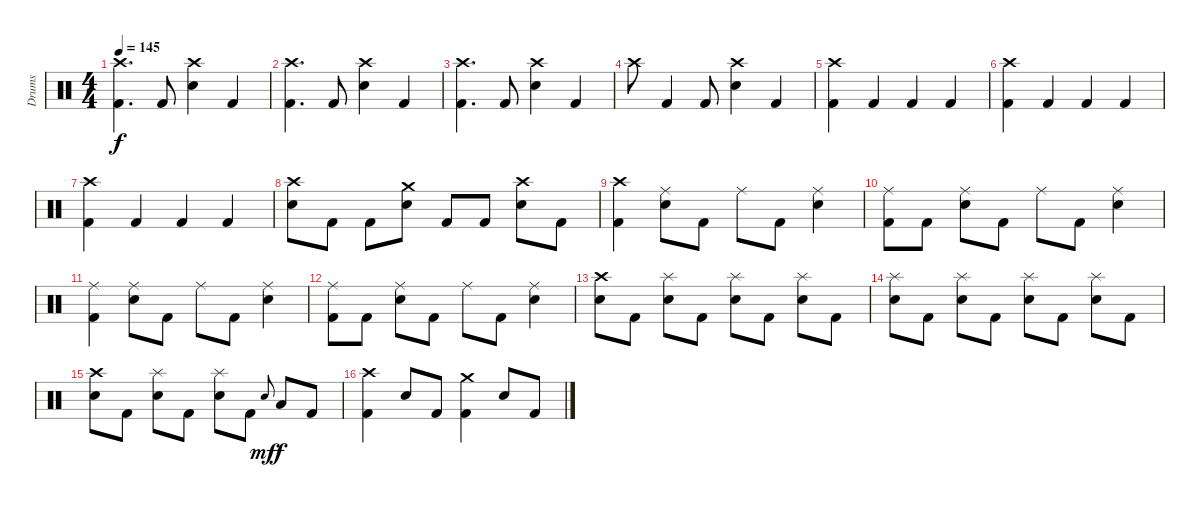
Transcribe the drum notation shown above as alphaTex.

\track ("Drums" "Drums") {instrument percussion}
\staff {score}
\articulation defaults
\ts (4 4)
\tempo 145
\clef neutral
\ks c
("Crash high (hit)" "Kick (hit) 2").4{d dy f} "Kick (hit) 2".8 ("Crash high (hit)" "Snare (hit) 2").4 "Kick (hit) 2".4 |
("Crash high (hit)" "Kick (hit) 2").4{d} "Kick (hit) 2".8 ("Crash high (hit)" "Snare (hit) 2").4 "Kick (hit) 2".4 |
("Crash high (hit)" "Kick (hit) 2").4{d} "Kick (hit) 2".8 ("Crash high (hit)" "Snare (hit) 2").4 "Kick (hit) 2".4 |
"Crash high (hit)".8 "Kick (hit) 2".4 "Kick (hit) 2".8 ("Crash high (hit)" "Snare (hit) 2").4 "Kick (hit) 2".4 |
("Crash high (hit)" "Kick (hit) 2").4 "Kick (hit) 2".4 "Kick (hit) 2".4 "Kick (hit) 2".4 |
("Crash high (hit)" "Kick (hit) 2").4 "Kick (hit) 2".4 "Kick (hit) 2".4 "Kick (hit) 2".4 |
("Crash high (hit)" "Kick (hit) 2").4 "Kick (hit) 2".4 "Kick (hit) 2".4 "Kick (hit) 2".4 |
("Crash high (hit)" "Snare (hit) 2").8 "Kick (hit) 2".8 "Kick (hit) 2".8 ("Crash medium (hit)" "Snare (hit) 2").8 "Kick (hit) 2".8 "Kick (hit) 2".8 ("Crash high (hit)" "Snare (hit) 2").8 "Kick (hit) 2".8 |
("Crash high (hit)" "Kick (hit) 2").4 ("Ride (middle)" "Snare (hit) 2").8 "Kick (hit) 2".8 "Ride (middle)".8 "Kick (hit) 2".8 ("Ride (middle)" "Snare (hit) 2").4 |
("Ride (middle)" "Kick (hit) 2").8 "Kick (hit) 2".8 ("Ride (middle)" "Snare (hit) 2").8 "Kick (hit) 2".8 "Ride (middle)".8 "Kick (hit) 2".8 ("Ride (middle)" "Snare (hit) 2").4 |
("Ride (middle)" "Kick (hit) 2").4 ("Ride (middle)" "Snare (hit) 2").8 "Kick (hit) 2".8 "Ride (middle)".8 "Kick (hit) 2".8 ("Ride (middle)" "Snare (hit) 2").4 |
("Ride (middle)" "Kick (hit) 2").8 "Kick (hit) 2".8 ("Ride (middle)" "Snare (hit) 2").8 "Kick (hit) 2".8 "Ride (middle)".8 "Kick (hit) 2".8 ("Ride (middle)" "Snare (hit) 2").4 |
("Crash high (hit)" "Snare (hit) 2").8 "Kick (hit) 2".8 ("Splash (hit)" "Snare (hit) 2").8 "Kick (hit) 2".8 ("Splash (hit)" "Snare (hit) 2").8 "Kick (hit) 2".8 ("Splash (hit)" "Snare (hit) 2").8 "Kick (hit) 2".8 |
("Splash (hit)" "Snare (hit) 2").8 "Kick (hit) 2".8 ("Splash (hit)" "Snare (hit) 2").8 "Kick (hit) 2".8 ("Splash (hit)" "Snare (hit) 2").8 "Kick (hit) 2".8 ("Splash (hit)" "Snare (hit) 2").8 "Kick (hit) 2".8 |
("Crash high (hit)" "Snare (hit) 2").8 "Kick (hit) 2".8 ("Splash (hit)" "Snare (hit) 2").8 "Kick (hit) 2".8 ("Splash (hit)" "Snare (hit) 2").8 "Kick (hit) 2".8 "Snare (hit)".8{gr onbeat dy mf} "Low Tom (hit)".8{dy f} "Kick (hit) 2".8 |
("Crash high (hit)" "Kick (hit) 2").4 "Snare (hit) 2".8 "Kick (hit) 2".8 ("Crash medium (hit)" "Kick (hit) 2").4 "Snare (hit) 2".8 "Kick (hit) 2".8
